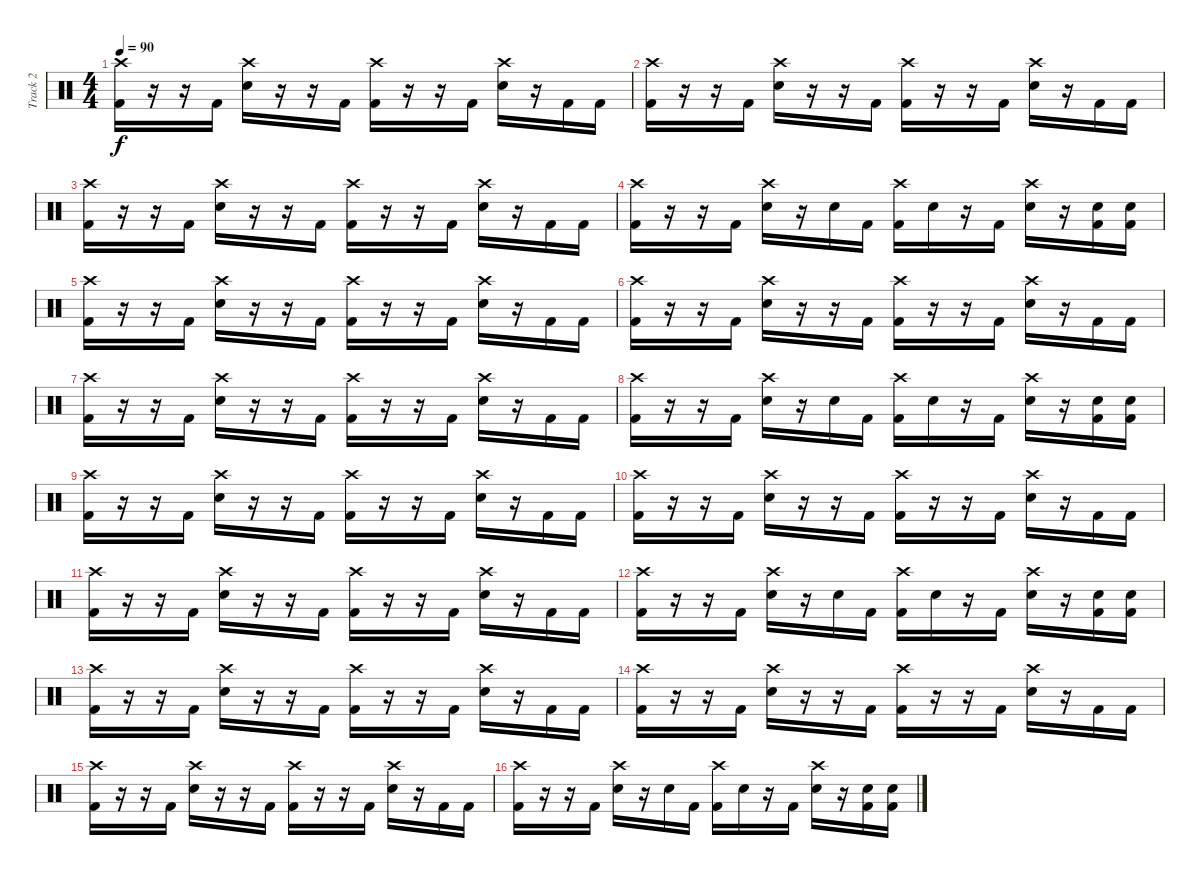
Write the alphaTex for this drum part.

\track ("Track 2" "Track 2") {instrument percussion}
\staff {score}
\articulation defaults
\ts (4 4)
\tempo 90
\clef neutral
\ks c
("Kick (hit) 2" "Crash high (hit)").16{dy f} r.16 r.16 "Kick (hit) 2".16 ("Electric Snare (hit)" "Crash high (hit)").16 r.16 r.16 "Kick (hit) 2".16 ("Kick (hit) 2" "Crash high (hit)").16 r.16 r.16 "Kick (hit) 2".16 ("Electric Snare (hit)" "Crash high (hit)").16 r.16 "Kick (hit) 2".16 "Kick (hit) 2".16 |
("Kick (hit) 2" "Crash high (hit)").16 r.16 r.16 "Kick (hit) 2".16 ("Electric Snare (hit)" "Crash high (hit)").16 r.16 r.16 "Kick (hit) 2".16 ("Kick (hit) 2" "Crash high (hit)").16 r.16 r.16 "Kick (hit) 2".16 ("Electric Snare (hit)" "Crash high (hit)").16 r.16 "Kick (hit) 2".16 "Kick (hit) 2".16 |
("Kick (hit) 2" "Crash high (hit)").16 r.16 r.16 "Kick (hit) 2".16 ("Electric Snare (hit)" "Crash high (hit)").16 r.16 r.16 "Kick (hit) 2".16 ("Kick (hit) 2" "Crash high (hit)").16 r.16 r.16 "Kick (hit) 2".16 ("Electric Snare (hit)" "Crash high (hit)").16 r.16 "Kick (hit) 2".16 "Kick (hit) 2".16 |
("Kick (hit) 2" "Crash high (hit)").16 r.16 r.16 "Kick (hit) 2".16 ("Electric Snare (hit)" "Crash high (hit)").16 r.16 "Electric Snare (hit)".16 "Kick (hit) 2".16 ("Kick (hit) 2" "Crash high (hit)").16 "Electric Snare (hit)".16 r.16 "Kick (hit) 2".16 ("Electric Snare (hit)" "Crash high (hit)").16 r.16 ("Kick (hit) 2" "Electric Snare (hit)").16 ("Kick (hit) 2" "Electric Snare (hit)").16 |
("Kick (hit) 2" "Crash high (hit)").16 r.16 r.16 "Kick (hit) 2".16 ("Electric Snare (hit)" "Crash high (hit)").16 r.16 r.16 "Kick (hit) 2".16 ("Kick (hit) 2" "Crash high (hit)").16 r.16 r.16 "Kick (hit) 2".16 ("Electric Snare (hit)" "Crash high (hit)").16 r.16 "Kick (hit) 2".16 "Kick (hit) 2".16 |
("Kick (hit) 2" "Crash high (hit)").16 r.16 r.16 "Kick (hit) 2".16 ("Electric Snare (hit)" "Crash high (hit)").16 r.16 r.16 "Kick (hit) 2".16 ("Kick (hit) 2" "Crash high (hit)").16 r.16 r.16 "Kick (hit) 2".16 ("Electric Snare (hit)" "Crash high (hit)").16 r.16 "Kick (hit) 2".16 "Kick (hit) 2".16 |
("Kick (hit) 2" "Crash high (hit)").16 r.16 r.16 "Kick (hit) 2".16 ("Electric Snare (hit)" "Crash high (hit)").16 r.16 r.16 "Kick (hit) 2".16 ("Kick (hit) 2" "Crash high (hit)").16 r.16 r.16 "Kick (hit) 2".16 ("Electric Snare (hit)" "Crash high (hit)").16 r.16 "Kick (hit) 2".16 "Kick (hit) 2".16 |
("Kick (hit) 2" "Crash high (hit)").16 r.16 r.16 "Kick (hit) 2".16 ("Electric Snare (hit)" "Crash high (hit)").16 r.16 "Electric Snare (hit)".16 "Kick (hit) 2".16 ("Kick (hit) 2" "Crash high (hit)").16 "Electric Snare (hit)".16 r.16 "Kick (hit) 2".16 ("Electric Snare (hit)" "Crash high (hit)").16 r.16 ("Kick (hit) 2" "Electric Snare (hit)").16 ("Kick (hit) 2" "Electric Snare (hit)").16 |
("Kick (hit) 2" "Crash high (hit)").16 r.16 r.16 "Kick (hit) 2".16 ("Electric Snare (hit)" "Crash high (hit)").16 r.16 r.16 "Kick (hit) 2".16 ("Kick (hit) 2" "Crash high (hit)").16 r.16 r.16 "Kick (hit) 2".16 ("Electric Snare (hit)" "Crash high (hit)").16 r.16 "Kick (hit) 2".16 "Kick (hit) 2".16 |
("Kick (hit) 2" "Crash high (hit)").16 r.16 r.16 "Kick (hit) 2".16 ("Electric Snare (hit)" "Crash high (hit)").16 r.16 r.16 "Kick (hit) 2".16 ("Kick (hit) 2" "Crash high (hit)").16 r.16 r.16 "Kick (hit) 2".16 ("Electric Snare (hit)" "Crash high (hit)").16 r.16 "Kick (hit) 2".16 "Kick (hit) 2".16 |
("Kick (hit) 2" "Crash high (hit)").16 r.16 r.16 "Kick (hit) 2".16 ("Electric Snare (hit)" "Crash high (hit)").16 r.16 r.16 "Kick (hit) 2".16 ("Kick (hit) 2" "Crash high (hit)").16 r.16 r.16 "Kick (hit) 2".16 ("Electric Snare (hit)" "Crash high (hit)").16 r.16 "Kick (hit) 2".16 "Kick (hit) 2".16 |
("Kick (hit) 2" "Crash high (hit)").16 r.16 r.16 "Kick (hit) 2".16 ("Electric Snare (hit)" "Crash high (hit)").16 r.16 "Electric Snare (hit)".16 "Kick (hit) 2".16 ("Kick (hit) 2" "Crash high (hit)").16 "Electric Snare (hit)".16 r.16 "Kick (hit) 2".16 ("Electric Snare (hit)" "Crash high (hit)").16 r.16 ("Kick (hit) 2" "Electric Snare (hit)").16 ("Kick (hit) 2" "Electric Snare (hit)").16 |
("Kick (hit) 2" "Crash high (hit)").16 r.16 r.16 "Kick (hit) 2".16 ("Electric Snare (hit)" "Crash high (hit)").16 r.16 r.16 "Kick (hit) 2".16 ("Kick (hit) 2" "Crash high (hit)").16 r.16 r.16 "Kick (hit) 2".16 ("Electric Snare (hit)" "Crash high (hit)").16 r.16 "Kick (hit) 2".16 "Kick (hit) 2".16 |
("Kick (hit) 2" "Crash high (hit)").16 r.16 r.16 "Kick (hit) 2".16 ("Electric Snare (hit)" "Crash high (hit)").16 r.16 r.16 "Kick (hit) 2".16 ("Kick (hit) 2" "Crash high (hit)").16 r.16 r.16 "Kick (hit) 2".16 ("Electric Snare (hit)" "Crash high (hit)").16 r.16 "Kick (hit) 2".16 "Kick (hit) 2".16 |
("Kick (hit) 2" "Crash high (hit)").16 r.16 r.16 "Kick (hit) 2".16 ("Electric Snare (hit)" "Crash high (hit)").16 r.16 r.16 "Kick (hit) 2".16 ("Kick (hit) 2" "Crash high (hit)").16 r.16 r.16 "Kick (hit) 2".16 ("Electric Snare (hit)" "Crash high (hit)").16 r.16 "Kick (hit) 2".16 "Kick (hit) 2".16 |
("Kick (hit) 2" "Crash high (hit)").16 r.16 r.16 "Kick (hit) 2".16 ("Electric Snare (hit)" "Crash high (hit)").16 r.16 "Electric Snare (hit)".16 "Kick (hit) 2".16 ("Kick (hit) 2" "Crash high (hit)").16 "Electric Snare (hit)".16 r.16 "Kick (hit) 2".16 ("Electric Snare (hit)" "Crash high (hit)").16 r.16 ("Kick (hit) 2" "Electric Snare (hit)").16 ("Kick (hit) 2" "Electric Snare (hit)").16
